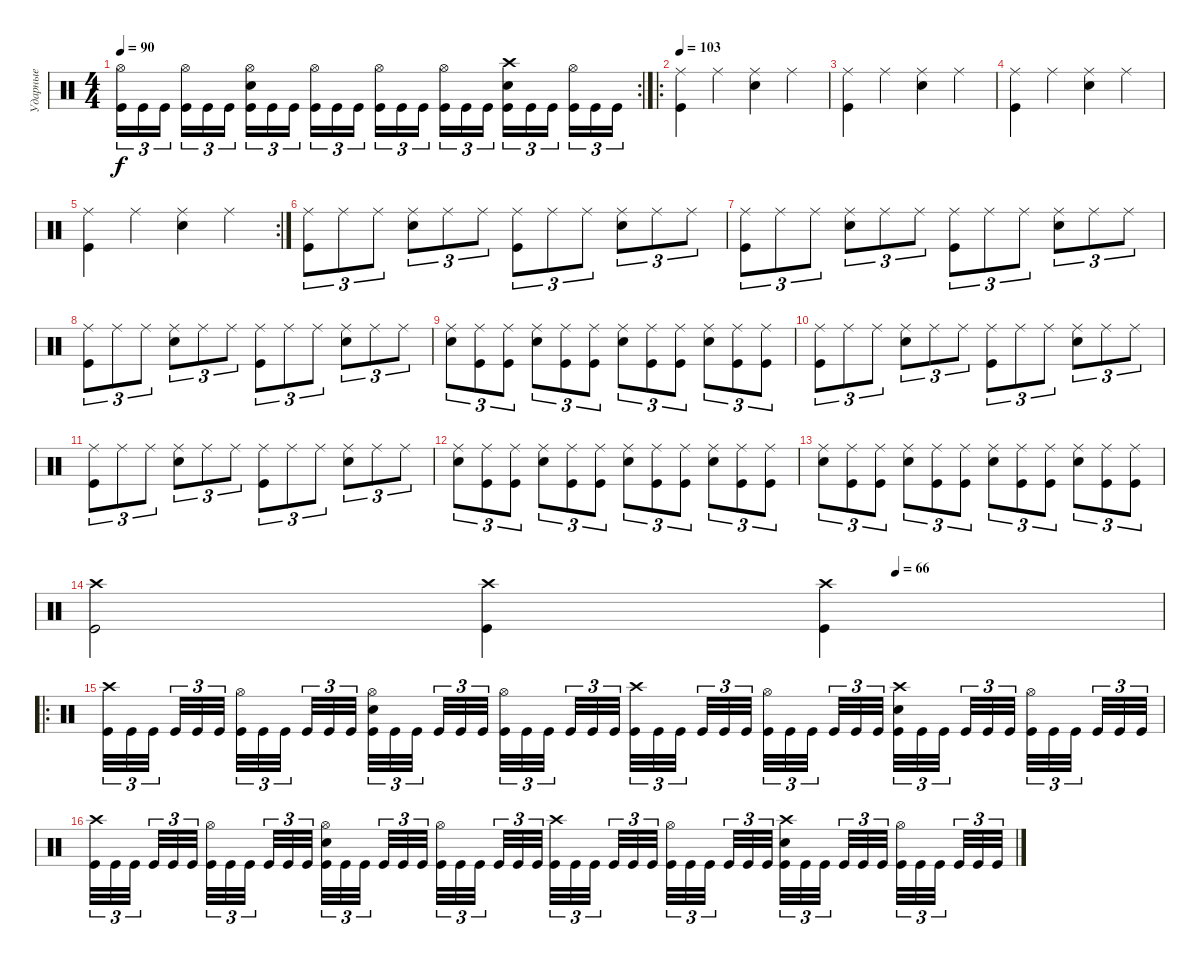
\track ("Ударные" "Ударные") {instrument percussion}
\staff {score}
\articulation defaults
\rc 2
\ts (4 4)
\tempo 90
\clef neutral
\ks c
("Hi-Hat (open)" "Kick (hit)").16{tu (3 2) dy f} "Kick (hit)".16{tu (3 2)} "Kick (hit)".16{tu (3 2) beam splitsecondary} ("Hi-Hat (open)" "Kick (hit)").16{tu (3 2)} "Kick (hit)".16{tu (3 2)} "Kick (hit)".16{tu (3 2)} ("Snare (hit) 2" "Hi-Hat (open)" "Kick (hit)").16{tu (3 2)} "Kick (hit)".16{tu (3 2)} "Kick (hit)".16{tu (3 2) beam splitsecondary} ("Hi-Hat (open)" "Kick (hit)").16{tu (3 2)} "Kick (hit)".16{tu (3 2)} "Kick (hit)".16{tu (3 2)} ("Hi-Hat (open)" "Kick (hit)").16{tu (3 2)} "Kick (hit)".16{tu (3 2)} "Kick (hit)".16{tu (3 2) beam splitsecondary} ("Hi-Hat (open)" "Kick (hit)").16{tu (3 2)} "Kick (hit)".16{tu (3 2)} "Kick (hit)".16{tu (3 2)} ("Snare (hit) 2" "Crash high (hit)" "Kick (hit)").16{tu (3 2)} "Kick (hit)".16{tu (3 2)} "Kick (hit)".16{tu (3 2) beam splitsecondary} ("Hi-Hat (open)" "Kick (hit)").16{tu (3 2)} "Kick (hit)".16{tu (3 2)} "Kick (hit)".16{tu (3 2)} |
\ro
\tempo 103
("Ride (middle)" "Kick (hit)").4 "Ride (middle)".4 ("Ride (middle)" "Snare (hit) 2").4 "Ride (middle)".4 |
("Ride (middle)" "Kick (hit)").4 "Ride (middle)".4 ("Ride (middle)" "Snare (hit) 2").4 "Ride (middle)".4 |
("Ride (middle)" "Kick (hit)").4 "Ride (middle)".4 ("Ride (middle)" "Snare (hit) 2").4 "Ride (middle)".4 |
\rc 2
("Ride (middle)" "Kick (hit)").4 "Ride (middle)".4 ("Ride (middle)" "Snare (hit) 2").4 "Ride (middle)".4 |
("Kick (hit)" "Ride (middle)").8{tu (3 2)} "Ride (middle)".8{tu (3 2)} "Ride (middle)".8{tu (3 2)} ("Snare (hit) 2" "Ride (middle)").8{tu (3 2)} "Ride (middle)".8{tu (3 2)} "Ride (middle)".8{tu (3 2)} ("Kick (hit)" "Ride (middle)").8{tu (3 2)} "Ride (middle)".8{tu (3 2)} "Ride (middle)".8{tu (3 2)} ("Snare (hit) 2" "Ride (middle)").8{tu (3 2)} "Ride (middle)".8{tu (3 2)} "Ride (middle)".8{tu (3 2)} |
("Kick (hit)" "Ride (middle)").8{tu (3 2)} "Ride (middle)".8{tu (3 2)} "Ride (middle)".8{tu (3 2)} ("Snare (hit) 2" "Ride (middle)").8{tu (3 2)} "Ride (middle)".8{tu (3 2)} "Ride (middle)".8{tu (3 2)} ("Kick (hit)" "Ride (middle)").8{tu (3 2)} "Ride (middle)".8{tu (3 2)} "Ride (middle)".8{tu (3 2)} ("Snare (hit) 2" "Ride (middle)").8{tu (3 2)} "Ride (middle)".8{tu (3 2)} "Ride (middle)".8{tu (3 2)} |
("Kick (hit)" "Ride (middle)").8{tu (3 2)} "Ride (middle)".8{tu (3 2)} "Ride (middle)".8{tu (3 2)} ("Snare (hit) 2" "Ride (middle)").8{tu (3 2)} "Ride (middle)".8{tu (3 2)} "Ride (middle)".8{tu (3 2)} ("Kick (hit)" "Ride (middle)").8{tu (3 2)} "Ride (middle)".8{tu (3 2)} "Ride (middle)".8{tu (3 2)} ("Snare (hit) 2" "Ride (middle)").8{tu (3 2)} "Ride (middle)".8{tu (3 2)} "Ride (middle)".8{tu (3 2)} |
("Snare (hit) 2" "Ride (middle)").8{tu (3 2)} ("Ride (middle)" "Kick (hit)").8{tu (3 2)} ("Ride (middle)" "Kick (hit)").8{tu (3 2)} ("Snare (hit) 2" "Ride (middle)").8{tu (3 2)} ("Ride (middle)" "Kick (hit)").8{tu (3 2)} ("Ride (middle)" "Kick (hit)").8{tu (3 2)} ("Snare (hit) 2" "Ride (middle)").8{tu (3 2)} ("Ride (middle)" "Kick (hit)").8{tu (3 2)} ("Ride (middle)" "Kick (hit)").8{tu (3 2)} ("Snare (hit) 2" "Ride (middle)").8{tu (3 2)} ("Kick (hit)" "Ride (middle)").8{tu (3 2)} ("Kick (hit)" "Ride (middle)").8{tu (3 2)} |
("Kick (hit)" "Ride (middle)").8{tu (3 2)} "Ride (middle)".8{tu (3 2)} "Ride (middle)".8{tu (3 2)} ("Snare (hit) 2" "Ride (middle)").8{tu (3 2)} "Ride (middle)".8{tu (3 2)} "Ride (middle)".8{tu (3 2)} ("Kick (hit)" "Ride (middle)").8{tu (3 2)} "Ride (middle)".8{tu (3 2)} "Ride (middle)".8{tu (3 2)} ("Snare (hit) 2" "Ride (middle)").8{tu (3 2)} "Ride (middle)".8{tu (3 2)} "Ride (middle)".8{tu (3 2)} |
("Kick (hit)" "Ride (middle)").8{tu (3 2)} "Ride (middle)".8{tu (3 2)} "Ride (middle)".8{tu (3 2)} ("Snare (hit) 2" "Ride (middle)").8{tu (3 2)} "Ride (middle)".8{tu (3 2)} "Ride (middle)".8{tu (3 2)} ("Kick (hit)" "Ride (middle)").8{tu (3 2)} "Ride (middle)".8{tu (3 2)} "Ride (middle)".8{tu (3 2)} ("Snare (hit) 2" "Ride (middle)").8{tu (3 2)} "Ride (middle)".8{tu (3 2)} "Ride (middle)".8{tu (3 2)} |
("Snare (hit) 2" "Ride (middle)").8{tu (3 2)} ("Ride (middle)" "Kick (hit)").8{tu (3 2)} ("Ride (middle)" "Kick (hit)").8{tu (3 2)} ("Snare (hit) 2" "Ride (middle)").8{tu (3 2)} ("Ride (middle)" "Kick (hit)").8{tu (3 2)} ("Ride (middle)" "Kick (hit)").8{tu (3 2)} ("Snare (hit) 2" "Ride (middle)").8{tu (3 2)} ("Ride (middle)" "Kick (hit)").8{tu (3 2)} ("Ride (middle)" "Kick (hit)").8{tu (3 2)} ("Snare (hit) 2" "Ride (middle)").8{tu (3 2)} ("Kick (hit)" "Ride (middle)").8{tu (3 2)} ("Kick (hit)" "Ride (middle)").8{tu (3 2)} |
("Snare (hit) 2" "Ride (middle)").8{tu (3 2)} ("Ride (middle)" "Kick (hit)").8{tu (3 2)} ("Ride (middle)" "Kick (hit)").8{tu (3 2)} ("Snare (hit) 2" "Ride (middle)").8{tu (3 2)} ("Ride (middle)" "Kick (hit)").8{tu (3 2)} ("Ride (middle)" "Kick (hit)").8{tu (3 2)} ("Snare (hit) 2" "Ride (middle)").8{tu (3 2)} ("Ride (middle)" "Kick (hit)").8{tu (3 2)} ("Ride (middle)" "Kick (hit)").8{tu (3 2)} ("Snare (hit) 2" "Ride (middle)").8{tu (3 2)} ("Kick (hit)" "Ride (middle)").8{tu (3 2)} ("Kick (hit)" "Ride (middle)").8{tu (3 2)} |
\tempo (66 0.75)
("Kick (hit)" "Crash high (hit)").2 ("Kick (hit)" "Crash high (hit)").4 ("Kick (hit)" "Crash high (hit)").4 |
\ro
("Kick (hit)" "Crash high (hit)").32{tu (3 2)} "Kick (hit)".32{tu (3 2)} "Kick (hit)".32{tu (3 2) beam splitsecondary} "Kick (hit)".32{tu (3 2)} "Kick (hit)".32{tu (3 2)} "Kick (hit)".32{tu (3 2) beam splitsecondary} ("Kick (hit)" "Hi-Hat (open)").32{tu (3 2)} "Kick (hit)".32{tu (3 2)} "Kick (hit)".32{tu (3 2) beam splitsecondary} "Kick (hit)".32{tu (3 2)} "Kick (hit)".32{tu (3 2)} "Kick (hit)".32{tu (3 2)} ("Kick (hit)" "Hi-Hat (open)" "Snare (hit) 2").32{tu (3 2)} "Kick (hit)".32{tu (3 2)} "Kick (hit)".32{tu (3 2) beam splitsecondary} "Kick (hit)".32{tu (3 2)} "Kick (hit)".32{tu (3 2)} "Kick (hit)".32{tu (3 2) beam splitsecondary} ("Kick (hit)" "Hi-Hat (open)").32{tu (3 2)} "Kick (hit)".32{tu (3 2)} "Kick (hit)".32{tu (3 2) beam splitsecondary} "Kick (hit)".32{tu (3 2)} "Kick (hit)".32{tu (3 2)} "Kick (hit)".32{tu (3 2)} ("Kick (hit)" "Crash high (hit)").32{tu (3 2)} "Kick (hit)".32{tu (3 2)} "Kick (hit)".32{tu (3 2) beam splitsecondary} "Kick (hit)".32{tu (3 2)} "Kick (hit)".32{tu (3 2)} "Kick (hit)".32{tu (3 2) beam splitsecondary} ("Kick (hit)" "Hi-Hat (open)").32{tu (3 2)} "Kick (hit)".32{tu (3 2)} "Kick (hit)".32{tu (3 2) beam splitsecondary} "Kick (hit)".32{tu (3 2)} "Kick (hit)".32{tu (3 2)} "Kick (hit)".32{tu (3 2)} ("Kick (hit)" "Crash high (hit)" "Snare (hit) 2").32{tu (3 2)} "Kick (hit)".32{tu (3 2)} "Kick (hit)".32{tu (3 2) beam splitsecondary} "Kick (hit)".32{tu (3 2)} "Kick (hit)".32{tu (3 2)} "Kick (hit)".32{tu (3 2) beam splitsecondary} ("Kick (hit)" "Hi-Hat (open)").32{tu (3 2)} "Kick (hit)".32{tu (3 2)} "Kick (hit)".32{tu (3 2) beam splitsecondary} "Kick (hit)".32{tu (3 2)} "Kick (hit)".32{tu (3 2)} "Kick (hit)".32{tu (3 2)} |
("Kick (hit)" "Crash high (hit)").32{tu (3 2)} "Kick (hit)".32{tu (3 2)} "Kick (hit)".32{tu (3 2) beam splitsecondary} "Kick (hit)".32{tu (3 2)} "Kick (hit)".32{tu (3 2)} "Kick (hit)".32{tu (3 2) beam splitsecondary} ("Kick (hit)" "Hi-Hat (open)").32{tu (3 2)} "Kick (hit)".32{tu (3 2)} "Kick (hit)".32{tu (3 2) beam splitsecondary} "Kick (hit)".32{tu (3 2)} "Kick (hit)".32{tu (3 2)} "Kick (hit)".32{tu (3 2)} ("Kick (hit)" "Hi-Hat (open)" "Snare (hit) 2").32{tu (3 2)} "Kick (hit)".32{tu (3 2)} "Kick (hit)".32{tu (3 2) beam splitsecondary} "Kick (hit)".32{tu (3 2)} "Kick (hit)".32{tu (3 2)} "Kick (hit)".32{tu (3 2) beam splitsecondary} ("Kick (hit)" "Hi-Hat (open)").32{tu (3 2)} "Kick (hit)".32{tu (3 2)} "Kick (hit)".32{tu (3 2) beam splitsecondary} "Kick (hit)".32{tu (3 2)} "Kick (hit)".32{tu (3 2)} "Kick (hit)".32{tu (3 2)} ("Kick (hit)" "Crash high (hit)").32{tu (3 2)} "Kick (hit)".32{tu (3 2)} "Kick (hit)".32{tu (3 2) beam splitsecondary} "Kick (hit)".32{tu (3 2)} "Kick (hit)".32{tu (3 2)} "Kick (hit)".32{tu (3 2) beam splitsecondary} ("Kick (hit)" "Hi-Hat (open)").32{tu (3 2)} "Kick (hit)".32{tu (3 2)} "Kick (hit)".32{tu (3 2) beam splitsecondary} "Kick (hit)".32{tu (3 2)} "Kick (hit)".32{tu (3 2)} "Kick (hit)".32{tu (3 2)} ("Kick (hit)" "Crash high (hit)" "Snare (hit) 2").32{tu (3 2)} "Kick (hit)".32{tu (3 2)} "Kick (hit)".32{tu (3 2) beam splitsecondary} "Kick (hit)".32{tu (3 2)} "Kick (hit)".32{tu (3 2)} "Kick (hit)".32{tu (3 2) beam splitsecondary} ("Kick (hit)" "Hi-Hat (open)").32{tu (3 2)} "Kick (hit)".32{tu (3 2)} "Kick (hit)".32{tu (3 2) beam splitsecondary} "Kick (hit)".32{tu (3 2)} "Kick (hit)".32{tu (3 2)} "Kick (hit)".32{tu (3 2)}
